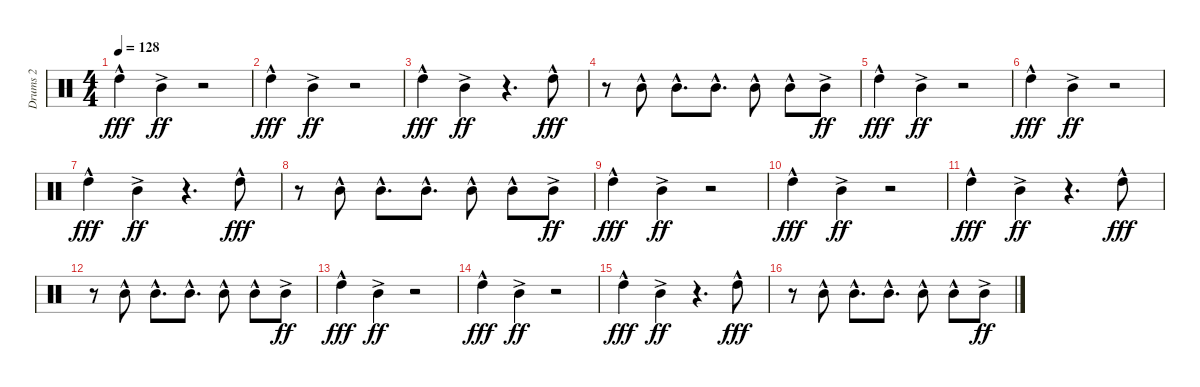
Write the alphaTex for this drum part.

\track ("Drums 2" "Drums 2") {instrument percussion}
\staff {score}
\articulation defaults
\ts (4 4)
\tempo 128
\clef neutral
\ks c "High Tom (hit)"{hac}.4{dy fff} "Mid Tom (hit)"{ac}.4{dy ff}
r.2 |
"High Tom (hit)"{hac}.4{dy fff} "Mid Tom (hit)"{ac}.4{dy ff} r.2 |
"High Tom (hit)"{hac}.4{dy fff} "Mid Tom (hit)"{ac}.4{dy ff} r.4{d} "High Tom (hit)"{hac}.8{dy fff} |
r.8 "Mid Tom (hit)"{hac}.8 "Mid Tom (hit)"{hac}.8{d} "Mid Tom (hit)"{hac}.8{d} "Mid Tom (hit)"{hac}.8 "Mid Tom (hit)"{hac}.8 "Mid Tom (hit)"{ac}.8{dy ff} |
"High Tom (hit)"{hac}.4{dy fff} "Mid Tom (hit)"{ac}.4{dy ff} r.2 |
"High Tom (hit)"{hac}.4{dy fff} "Mid Tom (hit)"{ac}.4{dy ff} r.2 |
"High Tom (hit)"{hac}.4{dy fff} "Mid Tom (hit)"{ac}.4{dy ff} r.4{d} "High Tom (hit)"{hac}.8{dy fff} |
r.8 "Mid Tom (hit)"{hac}.8 "Mid Tom (hit)"{hac}.8{d} "Mid Tom (hit)"{hac}.8{d} "Mid Tom (hit)"{hac}.8 "Mid Tom (hit)"{hac}.8 "Mid Tom (hit)"{ac}.8{dy ff} |
"High Tom (hit)"{hac}.4{dy fff} "Mid Tom (hit)"{ac}.4{dy ff} r.2 |
"High Tom (hit)"{hac}.4{dy fff} "Mid Tom (hit)"{ac}.4{dy ff} r.2 |
"High Tom (hit)"{hac}.4{dy fff} "Mid Tom (hit)"{ac}.4{dy ff} r.4{d} "High Tom (hit)"{hac}.8{dy fff} |
r.8 "Mid Tom (hit)"{hac}.8 "Mid Tom (hit)"{hac}.8{d} "Mid Tom (hit)"{hac}.8{d} "Mid Tom (hit)"{hac}.8 "Mid Tom (hit)"{hac}.8 "Mid Tom (hit)"{ac}.8{dy ff} |
"High Tom (hit)"{hac}.4{dy fff} "Mid Tom (hit)"{ac}.4{dy ff} r.2 |
"High Tom (hit)"{hac}.4{dy fff} "Mid Tom (hit)"{ac}.4{dy ff} r.2 |
"High Tom (hit)"{hac}.4{dy fff} "Mid Tom (hit)"{ac}.4{dy ff} r.4{d} "High Tom (hit)"{hac}.8{dy fff} |
r.8 "Mid Tom (hit)"{hac}.8 "Mid Tom (hit)"{hac}.8{d} "Mid Tom (hit)"{hac}.8{d} "Mid Tom (hit)"{hac}.8 "Mid Tom (hit)"{hac}.8 "Mid Tom (hit)"{ac}.8{dy ff}
